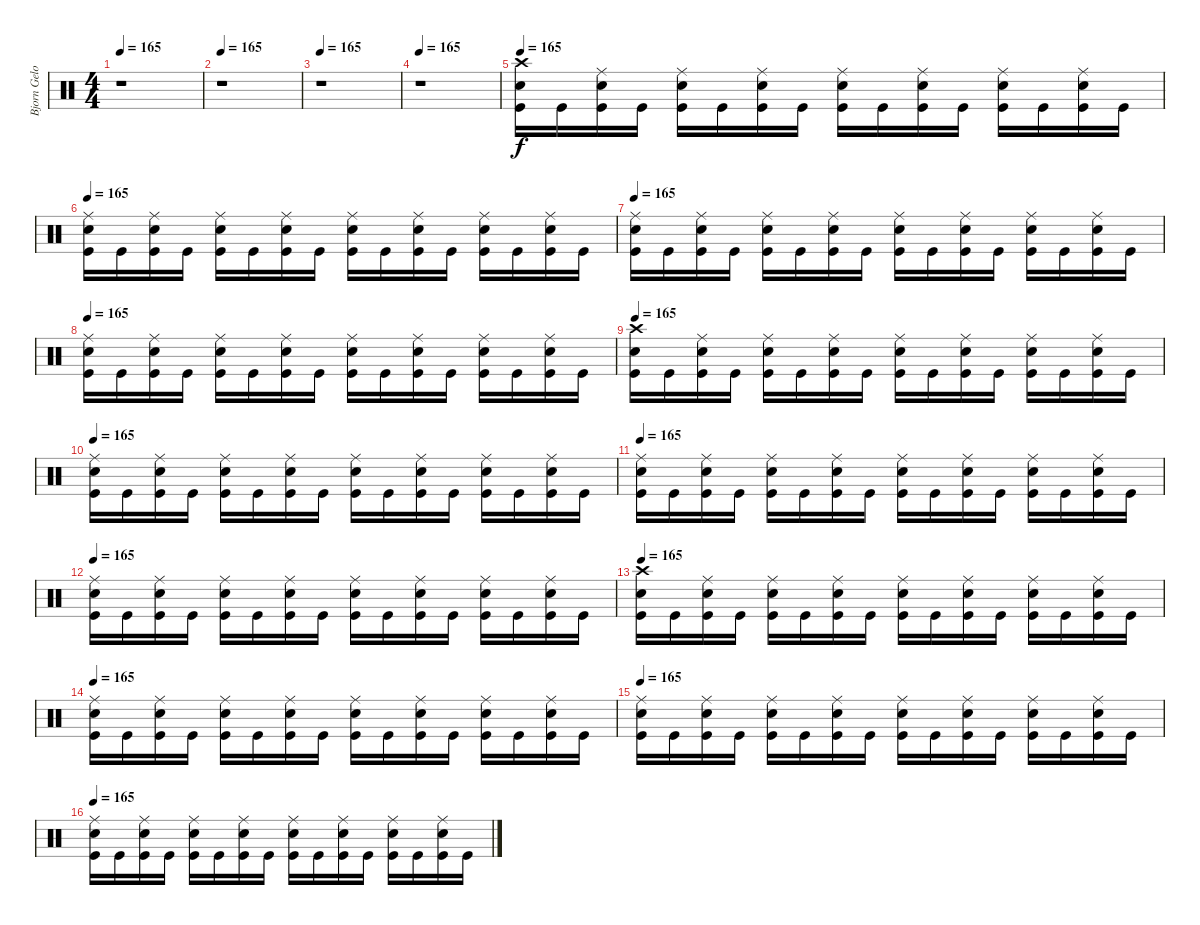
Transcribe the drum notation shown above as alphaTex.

\track ("Bjorn Gelotte-Drum" "Bjorn Gelo") {instrument percussion}
\staff {score}
\articulation defaults
\ts (4 4)
\tempo 165
\clef neutral
\ks c
r.1{dy f} |
\tempo 165
r.1 |
\tempo 165
r.1 |
\tempo 165
r.1 |
\tempo 165
("Crash high (hit)" "Electric Snare (hit)" "Kick (hit)").16 "Kick (hit)".16 ("Ride (middle)" "Electric Snare (hit)" "Kick (hit)").16 "Kick (hit)".16 ("Ride (middle)" "Electric Snare (hit)" "Kick (hit)").16 "Kick (hit)".16 ("Ride (middle)" "Electric Snare (hit)" "Kick (hit)").16 "Kick (hit)".16 ("Ride (middle)" "Electric Snare (hit)" "Kick (hit)").16 "Kick (hit)".16 ("Ride (middle)" "Electric Snare (hit)" "Kick (hit)").16 "Kick (hit)".16 ("Ride (middle)" "Electric Snare (hit)" "Kick (hit)").16 "Kick (hit)".16 ("Ride (middle)" "Electric Snare (hit)" "Kick (hit)").16 "Kick (hit)".16 |
\tempo 165
("Ride (middle)" "Electric Snare (hit)" "Kick (hit)").16 "Kick (hit)".16 ("Ride (middle)" "Electric Snare (hit)" "Kick (hit)").16 "Kick (hit)".16 ("Ride (middle)" "Electric Snare (hit)" "Kick (hit)").16 "Kick (hit)".16 ("Ride (middle)" "Electric Snare (hit)" "Kick (hit)").16 "Kick (hit)".16 ("Ride (middle)" "Electric Snare (hit)" "Kick (hit)").16 "Kick (hit)".16 ("Ride (middle)" "Electric Snare (hit)" "Kick (hit)").16 "Kick (hit)".16 ("Ride (middle)" "Electric Snare (hit)" "Kick (hit)").16 "Kick (hit)".16 ("Ride (middle)" "Electric Snare (hit)" "Kick (hit)").16 "Kick (hit)".16 |
\tempo 165
("Ride (middle)" "Electric Snare (hit)" "Kick (hit)").16 "Kick (hit)".16 ("Ride (middle)" "Electric Snare (hit)" "Kick (hit)").16 "Kick (hit)".16 ("Ride (middle)" "Electric Snare (hit)" "Kick (hit)").16 "Kick (hit)".16 ("Ride (middle)" "Electric Snare (hit)" "Kick (hit)").16 "Kick (hit)".16 ("Ride (middle)" "Electric Snare (hit)" "Kick (hit)").16 "Kick (hit)".16 ("Ride (middle)" "Electric Snare (hit)" "Kick (hit)").16 "Kick (hit)".16 ("Ride (middle)" "Electric Snare (hit)" "Kick (hit)").16 "Kick (hit)".16 ("Ride (middle)" "Electric Snare (hit)" "Kick (hit)").16 "Kick (hit)".16 |
\tempo 165
("Ride (middle)" "Electric Snare (hit)" "Kick (hit)").16 "Kick (hit)".16 ("Ride (middle)" "Electric Snare (hit)" "Kick (hit)").16 "Kick (hit)".16 ("Ride (middle)" "Electric Snare (hit)" "Kick (hit)").16 "Kick (hit)".16 ("Ride (middle)" "Electric Snare (hit)" "Kick (hit)").16 "Kick (hit)".16 ("Ride (middle)" "Electric Snare (hit)" "Kick (hit)").16 "Kick (hit)".16 ("Ride (middle)" "Electric Snare (hit)" "Kick (hit)").16 "Kick (hit)".16 ("Ride (middle)" "Electric Snare (hit)" "Kick (hit)").16 "Kick (hit)".16 ("Ride (middle)" "Electric Snare (hit)" "Kick (hit)").16 "Kick (hit)".16 |
\tempo 165
("Crash high (hit)" "Electric Snare (hit)" "Kick (hit)").16 "Kick (hit)".16 ("Ride (middle)" "Electric Snare (hit)" "Kick (hit)").16 "Kick (hit)".16 ("Ride (middle)" "Electric Snare (hit)" "Kick (hit)").16 "Kick (hit)".16 ("Ride (middle)" "Electric Snare (hit)" "Kick (hit)").16 "Kick (hit)".16 ("Ride (middle)" "Electric Snare (hit)" "Kick (hit)").16 "Kick (hit)".16 ("Ride (middle)" "Electric Snare (hit)" "Kick (hit)").16 "Kick (hit)".16 ("Ride (middle)" "Electric Snare (hit)" "Kick (hit)").16 "Kick (hit)".16 ("Ride (middle)" "Electric Snare (hit)" "Kick (hit)").16 "Kick (hit)".16 |
\tempo 165
("Ride (middle)" "Electric Snare (hit)" "Kick (hit)").16 "Kick (hit)".16 ("Ride (middle)" "Electric Snare (hit)" "Kick (hit)").16 "Kick (hit)".16 ("Ride (middle)" "Electric Snare (hit)" "Kick (hit)").16 "Kick (hit)".16 ("Ride (middle)" "Electric Snare (hit)" "Kick (hit)").16 "Kick (hit)".16 ("Ride (middle)" "Electric Snare (hit)" "Kick (hit)").16 "Kick (hit)".16 ("Ride (middle)" "Electric Snare (hit)" "Kick (hit)").16 "Kick (hit)".16 ("Ride (middle)" "Electric Snare (hit)" "Kick (hit)").16 "Kick (hit)".16 ("Ride (middle)" "Electric Snare (hit)" "Kick (hit)").16 "Kick (hit)".16 |
\tempo 165
("Ride (middle)" "Electric Snare (hit)" "Kick (hit)").16 "Kick (hit)".16 ("Ride (middle)" "Electric Snare (hit)" "Kick (hit)").16 "Kick (hit)".16 ("Ride (middle)" "Electric Snare (hit)" "Kick (hit)").16 "Kick (hit)".16 ("Ride (middle)" "Electric Snare (hit)" "Kick (hit)").16 "Kick (hit)".16 ("Ride (middle)" "Electric Snare (hit)" "Kick (hit)").16 "Kick (hit)".16 ("Ride (middle)" "Electric Snare (hit)" "Kick (hit)").16 "Kick (hit)".16 ("Ride (middle)" "Electric Snare (hit)" "Kick (hit)").16 "Kick (hit)".16 ("Ride (middle)" "Electric Snare (hit)" "Kick (hit)").16 "Kick (hit)".16 |
\tempo 165
("Ride (middle)" "Electric Snare (hit)" "Kick (hit)").16 "Kick (hit)".16 ("Ride (middle)" "Electric Snare (hit)" "Kick (hit)").16 "Kick (hit)".16 ("Ride (middle)" "Electric Snare (hit)" "Kick (hit)").16 "Kick (hit)".16 ("Ride (middle)" "Electric Snare (hit)" "Kick (hit)").16 "Kick (hit)".16 ("Ride (middle)" "Electric Snare (hit)" "Kick (hit)").16 "Kick (hit)".16 ("Ride (middle)" "Electric Snare (hit)" "Kick (hit)").16 "Kick (hit)".16 ("Ride (middle)" "Electric Snare (hit)" "Kick (hit)").16 "Kick (hit)".16 ("Ride (middle)" "Electric Snare (hit)" "Kick (hit)").16 "Kick (hit)".16 |
\tempo 165
("Crash high (hit)" "Electric Snare (hit)" "Kick (hit)").16 "Kick (hit)".16 ("Ride (middle)" "Electric Snare (hit)" "Kick (hit)").16 "Kick (hit)".16 ("Ride (middle)" "Electric Snare (hit)" "Kick (hit)").16 "Kick (hit)".16 ("Ride (middle)" "Electric Snare (hit)" "Kick (hit)").16 "Kick (hit)".16 ("Ride (middle)" "Electric Snare (hit)" "Kick (hit)").16 "Kick (hit)".16 ("Ride (middle)" "Electric Snare (hit)" "Kick (hit)").16 "Kick (hit)".16 ("Ride (middle)" "Electric Snare (hit)" "Kick (hit)").16 "Kick (hit)".16 ("Ride (middle)" "Electric Snare (hit)" "Kick (hit)").16 "Kick (hit)".16 |
\tempo 165
("Ride (middle)" "Electric Snare (hit)" "Kick (hit)").16 "Kick (hit)".16 ("Ride (middle)" "Electric Snare (hit)" "Kick (hit)").16 "Kick (hit)".16 ("Ride (middle)" "Electric Snare (hit)" "Kick (hit)").16 "Kick (hit)".16 ("Ride (middle)" "Electric Snare (hit)" "Kick (hit)").16 "Kick (hit)".16 ("Ride (middle)" "Electric Snare (hit)" "Kick (hit)").16 "Kick (hit)".16 ("Ride (middle)" "Electric Snare (hit)" "Kick (hit)").16 "Kick (hit)".16 ("Ride (middle)" "Electric Snare (hit)" "Kick (hit)").16 "Kick (hit)".16 ("Ride (middle)" "Electric Snare (hit)" "Kick (hit)").16 "Kick (hit)".16 |
\tempo 165
("Ride (middle)" "Electric Snare (hit)" "Kick (hit)").16 "Kick (hit)".16 ("Ride (middle)" "Electric Snare (hit)" "Kick (hit)").16 "Kick (hit)".16 ("Ride (middle)" "Electric Snare (hit)" "Kick (hit)").16 "Kick (hit)".16 ("Ride (middle)" "Electric Snare (hit)" "Kick (hit)").16 "Kick (hit)".16 ("Ride (middle)" "Electric Snare (hit)" "Kick (hit)").16 "Kick (hit)".16 ("Ride (middle)" "Electric Snare (hit)" "Kick (hit)").16 "Kick (hit)".16 ("Ride (middle)" "Electric Snare (hit)" "Kick (hit)").16 "Kick (hit)".16 ("Ride (middle)" "Electric Snare (hit)" "Kick (hit)").16 "Kick (hit)".16 |
\tempo 165
("Ride (middle)" "Electric Snare (hit)" "Kick (hit)").16 "Kick (hit)".16 ("Ride (middle)" "Electric Snare (hit)" "Kick (hit)").16 "Kick (hit)".16 ("Ride (middle)" "Electric Snare (hit)" "Kick (hit)").16 "Kick (hit)".16 ("Ride (middle)" "Electric Snare (hit)" "Kick (hit)").16 "Kick (hit)".16 ("Ride (middle)" "Electric Snare (hit)" "Kick (hit)").16 "Kick (hit)".16 ("Ride (middle)" "Electric Snare (hit)" "Kick (hit)").16 "Kick (hit)".16 ("Ride (middle)" "Electric Snare (hit)" "Kick (hit)").16 "Kick (hit)".16 ("Ride (middle)" "Electric Snare (hit)" "Kick (hit)").16 "Kick (hit)".16
